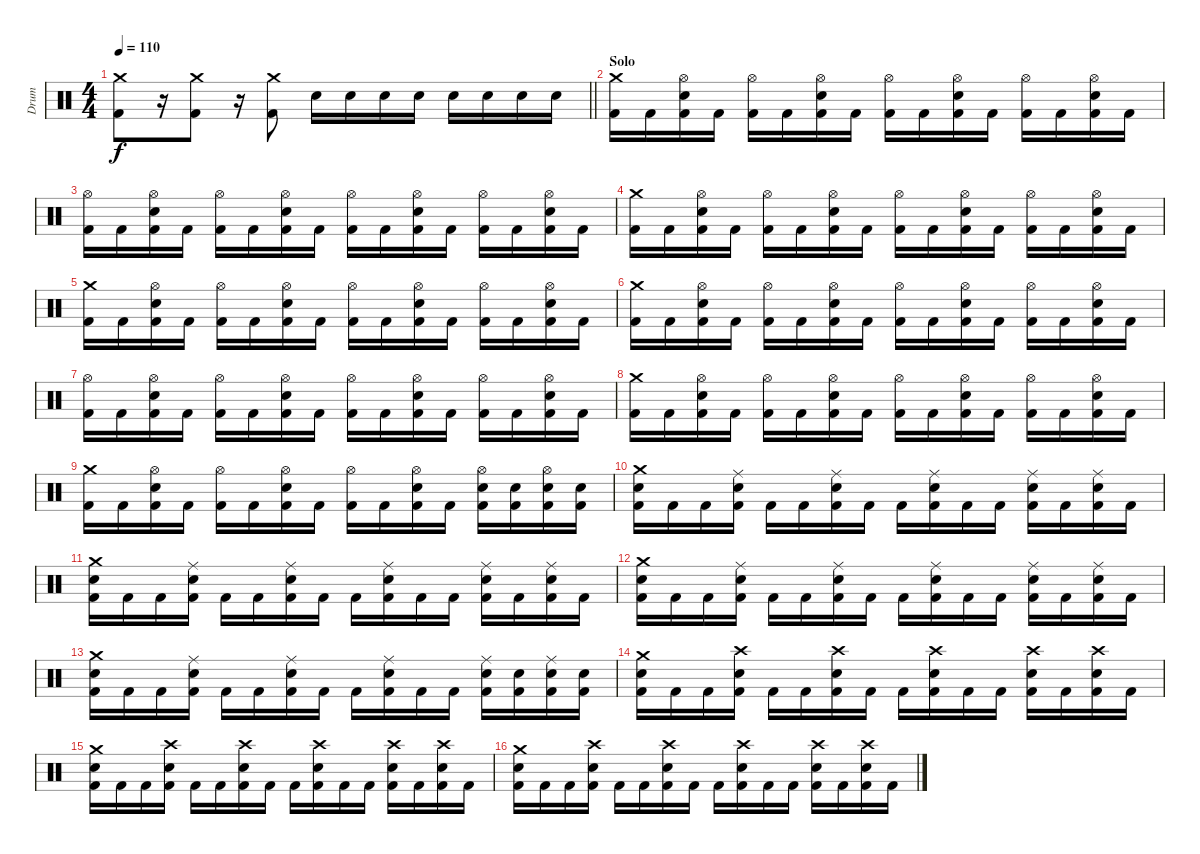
\track ("Drum" "Drum") {instrument percussion}
\staff {score}
\articulation defaults
\ts (4 4)
\tempo 110
\clef neutral
\barLineRight lightlight
\ks c
("Crash medium (hit)" "Kick (hit) 2").8{dy f} r.16 ("Crash medium (hit)" "Kick (hit) 2").8 r.16 ("Crash medium (hit)" "Kick (hit) 2").8 "Electric Snare (hit)".16 "Electric Snare (hit)".16 "Electric Snare (hit)".16 "Electric Snare (hit)".16 "Electric Snare (hit)".16 "Electric Snare (hit)".16 "Electric Snare (hit)".16 "Electric Snare (hit)".16 |
\section ("" "Solo")
("Crash medium (hit)" "Kick (hit) 2").16 "Kick (hit) 2".16 ("Hi-Hat (open)" "Electric Snare (hit)" "Kick (hit) 2").16 "Kick (hit) 2".16 ("Hi-Hat (open)" "Kick (hit) 2").16 "Kick (hit) 2".16 ("Hi-Hat (open)" "Electric Snare (hit)" "Kick (hit) 2").16 "Kick (hit) 2".16 ("Hi-Hat (open)" "Kick (hit) 2").16 "Kick (hit) 2".16 ("Hi-Hat (open)" "Electric Snare (hit)" "Kick (hit) 2").16 "Kick (hit) 2".16 ("Hi-Hat (open)" "Kick (hit) 2").16 "Kick (hit) 2".16 ("Hi-Hat (open)" "Electric Snare (hit)" "Kick (hit) 2").16 "Kick (hit) 2".16 |
("Hi-Hat (open)" "Kick (hit) 2").16 "Kick (hit) 2".16 ("Hi-Hat (open)" "Electric Snare (hit)" "Kick (hit) 2").16 "Kick (hit) 2".16 ("Hi-Hat (open)" "Kick (hit) 2").16 "Kick (hit) 2".16 ("Hi-Hat (open)" "Electric Snare (hit)" "Kick (hit) 2").16 "Kick (hit) 2".16 ("Hi-Hat (open)" "Kick (hit) 2").16 "Kick (hit) 2".16 ("Hi-Hat (open)" "Electric Snare (hit)" "Kick (hit) 2").16 "Kick (hit) 2".16 ("Hi-Hat (open)" "Kick (hit) 2").16 "Kick (hit) 2".16 ("Hi-Hat (open)" "Electric Snare (hit)" "Kick (hit) 2").16 "Kick (hit) 2".16 |
("Crash medium (hit)" "Kick (hit) 2").16 "Kick (hit) 2".16 ("Hi-Hat (open)" "Electric Snare (hit)" "Kick (hit) 2").16 "Kick (hit) 2".16 ("Hi-Hat (open)" "Kick (hit) 2").16 "Kick (hit) 2".16 ("Hi-Hat (open)" "Electric Snare (hit)" "Kick (hit) 2").16 "Kick (hit) 2".16 ("Hi-Hat (open)" "Kick (hit) 2").16 "Kick (hit) 2".16 ("Hi-Hat (open)" "Electric Snare (hit)" "Kick (hit) 2").16 "Kick (hit) 2".16 ("Hi-Hat (open)" "Kick (hit) 2").16 "Kick (hit) 2".16 ("Hi-Hat (open)" "Electric Snare (hit)" "Kick (hit) 2").16 "Kick (hit) 2".16 |
("Crash medium (hit)" "Kick (hit) 2").16 "Kick (hit) 2".16 ("Hi-Hat (open)" "Electric Snare (hit)" "Kick (hit) 2").16 "Kick (hit) 2".16 ("Hi-Hat (open)" "Kick (hit) 2").16 "Kick (hit) 2".16 ("Hi-Hat (open)" "Electric Snare (hit)" "Kick (hit) 2").16 "Kick (hit) 2".16 ("Hi-Hat (open)" "Kick (hit) 2").16 "Kick (hit) 2".16 ("Hi-Hat (open)" "Electric Snare (hit)" "Kick (hit) 2").16 "Kick (hit) 2".16 ("Hi-Hat (open)" "Kick (hit) 2").16 "Kick (hit) 2".16 ("Hi-Hat (open)" "Electric Snare (hit)" "Kick (hit) 2").16 "Kick (hit) 2".16 |
("Crash medium (hit)" "Kick (hit) 2").16 "Kick (hit) 2".16 ("Hi-Hat (open)" "Electric Snare (hit)" "Kick (hit) 2").16 "Kick (hit) 2".16 ("Hi-Hat (open)" "Kick (hit) 2").16 "Kick (hit) 2".16 ("Hi-Hat (open)" "Electric Snare (hit)" "Kick (hit) 2").16 "Kick (hit) 2".16 ("Hi-Hat (open)" "Kick (hit) 2").16 "Kick (hit) 2".16 ("Hi-Hat (open)" "Electric Snare (hit)" "Kick (hit) 2").16 "Kick (hit) 2".16 ("Hi-Hat (open)" "Kick (hit) 2").16 "Kick (hit) 2".16 ("Hi-Hat (open)" "Electric Snare (hit)" "Kick (hit) 2").16 "Kick (hit) 2".16 |
("Hi-Hat (open)" "Kick (hit) 2").16 "Kick (hit) 2".16 ("Hi-Hat (open)" "Electric Snare (hit)" "Kick (hit) 2").16 "Kick (hit) 2".16 ("Hi-Hat (open)" "Kick (hit) 2").16 "Kick (hit) 2".16 ("Hi-Hat (open)" "Electric Snare (hit)" "Kick (hit) 2").16 "Kick (hit) 2".16 ("Hi-Hat (open)" "Kick (hit) 2").16 "Kick (hit) 2".16 ("Hi-Hat (open)" "Electric Snare (hit)" "Kick (hit) 2").16 "Kick (hit) 2".16 ("Hi-Hat (open)" "Kick (hit) 2").16 "Kick (hit) 2".16 ("Hi-Hat (open)" "Electric Snare (hit)" "Kick (hit) 2").16 "Kick (hit) 2".16 |
("Crash medium (hit)" "Kick (hit) 2").16 "Kick (hit) 2".16 ("Hi-Hat (open)" "Electric Snare (hit)" "Kick (hit) 2").16 "Kick (hit) 2".16 ("Hi-Hat (open)" "Kick (hit) 2").16 "Kick (hit) 2".16 ("Hi-Hat (open)" "Electric Snare (hit)" "Kick (hit) 2").16 "Kick (hit) 2".16 ("Hi-Hat (open)" "Kick (hit) 2").16 "Kick (hit) 2".16 ("Hi-Hat (open)" "Electric Snare (hit)" "Kick (hit) 2").16 "Kick (hit) 2".16 ("Hi-Hat (open)" "Kick (hit) 2").16 "Kick (hit) 2".16 ("Hi-Hat (open)" "Electric Snare (hit)" "Kick (hit) 2").16 "Kick (hit) 2".16 |
("Crash medium (hit)" "Kick (hit) 2").16 "Kick (hit) 2".16 ("Hi-Hat (open)" "Electric Snare (hit)" "Kick (hit) 2").16 "Kick (hit) 2".16 ("Hi-Hat (open)" "Kick (hit) 2").16 "Kick (hit) 2".16 ("Hi-Hat (open)" "Electric Snare (hit)" "Kick (hit) 2").16 "Kick (hit) 2".16 ("Hi-Hat (open)" "Kick (hit) 2").16 "Kick (hit) 2".16 ("Hi-Hat (open)" "Electric Snare (hit)" "Kick (hit) 2").16 "Kick (hit) 2".16 ("Hi-Hat (open)" "Electric Snare (hit)" "Kick (hit) 2").16 ("Electric Snare (hit)" "Kick (hit) 2").16 ("Hi-Hat (open)" "Electric Snare (hit)" "Kick (hit) 2").16 ("Electric Snare (hit)" "Kick (hit) 2").16 |
("Crash medium (hit)" "Electric Snare (hit)" "Kick (hit) 2").16 "Kick (hit) 2".16 "Kick (hit) 2".16 ("Ride (middle)" "Electric Snare (hit)" "Kick (hit) 2").16 "Kick (hit) 2".16 "Kick (hit) 2".16 ("Ride (middle)" "Electric Snare (hit)" "Kick (hit) 2").16 "Kick (hit) 2".16 "Kick (hit) 2".16 ("Ride (middle)" "Electric Snare (hit)" "Kick (hit) 2").16 "Kick (hit) 2".16 "Kick (hit) 2".16 ("Ride (middle)" "Electric Snare (hit)" "Kick (hit) 2").16 "Kick (hit) 2".16 ("Ride (middle)" "Electric Snare (hit)" "Kick (hit) 2").16 "Kick (hit) 2".16 |
("Crash medium (hit)" "Electric Snare (hit)" "Kick (hit) 2").16 "Kick (hit) 2".16 "Kick (hit) 2".16 ("Ride (middle)" "Electric Snare (hit)" "Kick (hit) 2").16 "Kick (hit) 2".16 "Kick (hit) 2".16 ("Ride (middle)" "Electric Snare (hit)" "Kick (hit) 2").16 "Kick (hit) 2".16 "Kick (hit) 2".16 ("Ride (middle)" "Electric Snare (hit)" "Kick (hit) 2").16 "Kick (hit) 2".16 "Kick (hit) 2".16 ("Ride (middle)" "Electric Snare (hit)" "Kick (hit) 2").16 "Kick (hit) 2".16 ("Ride (middle)" "Electric Snare (hit)" "Kick (hit) 2").16 "Kick (hit) 2".16 |
("Crash medium (hit)" "Electric Snare (hit)" "Kick (hit) 2").16 "Kick (hit) 2".16 "Kick (hit) 2".16 ("Ride (middle)" "Electric Snare (hit)" "Kick (hit) 2").16 "Kick (hit) 2".16 "Kick (hit) 2".16 ("Ride (middle)" "Electric Snare (hit)" "Kick (hit) 2").16 "Kick (hit) 2".16 "Kick (hit) 2".16 ("Ride (middle)" "Electric Snare (hit)" "Kick (hit) 2").16 "Kick (hit) 2".16 "Kick (hit) 2".16 ("Ride (middle)" "Electric Snare (hit)" "Kick (hit) 2").16 "Kick (hit) 2".16 ("Ride (middle)" "Electric Snare (hit)" "Kick (hit) 2").16 "Kick (hit) 2".16 |
("Crash medium (hit)" "Electric Snare (hit)" "Kick (hit) 2").16 "Kick (hit) 2".16 "Kick (hit) 2".16 ("Ride (middle)" "Electric Snare (hit)" "Kick (hit) 2").16 "Kick (hit) 2".16 "Kick (hit) 2".16 ("Ride (middle)" "Electric Snare (hit)" "Kick (hit) 2").16 "Kick (hit) 2".16 "Kick (hit) 2".16 ("Ride (middle)" "Electric Snare (hit)" "Kick (hit) 2").16 "Kick (hit) 2".16 "Kick (hit) 2".16 ("Ride (middle)" "Electric Snare (hit)" "Kick (hit) 2").16 ("Electric Snare (hit)" "Kick (hit) 2").16 ("Ride (middle)" "Electric Snare (hit)" "Kick (hit) 2").16 ("Electric Snare (hit)" "Kick (hit) 2").16 |
("Crash medium (hit)" "Electric Snare (hit)" "Kick (hit) 2").16 "Kick (hit) 2".16 "Kick (hit) 2".16 ("Crash high (hit)" "Electric Snare (hit)" "Kick (hit) 2").16 "Kick (hit) 2".16 "Kick (hit) 2".16 ("Crash high (hit)" "Electric Snare (hit)" "Kick (hit) 2").16 "Kick (hit) 2".16 "Kick (hit) 2".16 ("Crash high (hit)" "Electric Snare (hit)" "Kick (hit) 2").16 "Kick (hit) 2".16 "Kick (hit) 2".16 ("Crash high (hit)" "Electric Snare (hit)" "Kick (hit) 2").16 "Kick (hit) 2".16 ("Crash high (hit)" "Electric Snare (hit)" "Kick (hit) 2").16 "Kick (hit) 2".16 |
("Crash medium (hit)" "Electric Snare (hit)" "Kick (hit) 2").16 "Kick (hit) 2".16 "Kick (hit) 2".16 ("Crash high (hit)" "Electric Snare (hit)" "Kick (hit) 2").16 "Kick (hit) 2".16 "Kick (hit) 2".16 ("Crash high (hit)" "Electric Snare (hit)" "Kick (hit) 2").16 "Kick (hit) 2".16 "Kick (hit) 2".16 ("Crash high (hit)" "Electric Snare (hit)" "Kick (hit) 2").16 "Kick (hit) 2".16 "Kick (hit) 2".16 ("Crash high (hit)" "Electric Snare (hit)" "Kick (hit) 2").16 "Kick (hit) 2".16 ("Crash high (hit)" "Electric Snare (hit)" "Kick (hit) 2").16 "Kick (hit) 2".16 |
("Crash medium (hit)" "Electric Snare (hit)" "Kick (hit) 2").16 "Kick (hit) 2".16 "Kick (hit) 2".16 ("Crash high (hit)" "Electric Snare (hit)" "Kick (hit) 2").16 "Kick (hit) 2".16 "Kick (hit) 2".16 ("Crash high (hit)" "Electric Snare (hit)" "Kick (hit) 2").16 "Kick (hit) 2".16 "Kick (hit) 2".16 ("Crash high (hit)" "Electric Snare (hit)" "Kick (hit) 2").16 "Kick (hit) 2".16 "Kick (hit) 2".16 ("Crash high (hit)" "Electric Snare (hit)" "Kick (hit) 2").16 "Kick (hit) 2".16 ("Crash high (hit)" "Electric Snare (hit)" "Kick (hit) 2").16 "Kick (hit) 2".16
